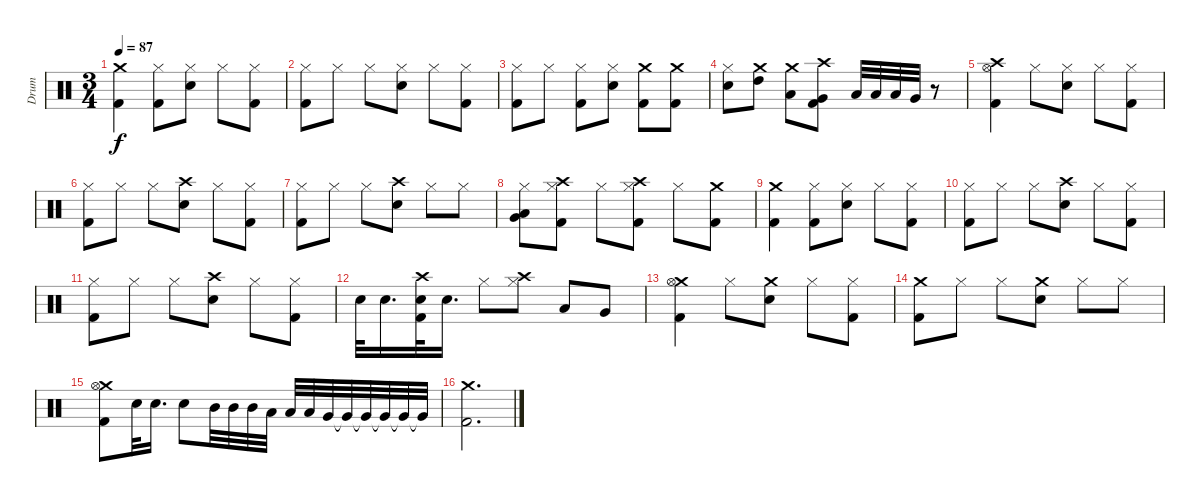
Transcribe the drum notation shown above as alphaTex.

\track ("Drum" "Drum") {instrument percussion}
\staff {score}
\articulation defaults
\ts (3 4)
\tempo 87
\clef neutral
\ks c
("Crash medium (hit)" "Kick (hit) 2").4{dy f} ("Hi-Hat (closed)" "Kick (hit) 2").8 ("Hi-Hat (closed)" "Electric Snare (hit)").8 "Hi-Hat (closed)".8 ("Hi-Hat (closed)" "Kick (hit) 2").8 |
("Hi-Hat (closed)" "Kick (hit) 2").8 "Hi-Hat (closed)".8 "Hi-Hat (closed)".8 ("Hi-Hat (closed)" "Electric Snare (hit)").8 "Hi-Hat (closed)".8 ("Hi-Hat (closed)" "Kick (hit) 2").8 |
("Hi-Hat (closed)" "Kick (hit) 2").8 "Hi-Hat (closed)".8 ("Hi-Hat (closed)" "Kick (hit) 2").8 ("Hi-Hat (closed)" "Electric Snare (hit)").8 ("Crash medium (hit)" "Kick (hit) 2").8 ("Crash medium (hit)" "Kick (hit) 2").8 |
("Hi-Hat (closed)" "Electric Snare (hit)").8 ("Crash medium (hit)" "High Tom (hit)").8 ("Crash medium (hit)" "Low Tom (hit)").8 ("Crash high (hit)" "Very Low Tom (hit)" "Kick (hit) 2").8 "Low Tom (hit)".32 "Low Tom (hit)".32 "Low Tom (hit)".32 "Very Low Tom (hit)".32 r.8 |
("Crash high (hit)" "Hi-Hat (open)" "Kick (hit) 2").4 "Hi-Hat (closed)".8 ("Hi-Hat (closed)" "Electric Snare (hit)").8 "Hi-Hat (closed)".8 ("Hi-Hat (closed)" "Kick (hit) 2").8 |
("Hi-Hat (closed)" "Kick (hit) 2").8 "Hi-Hat (closed)".8 "Hi-Hat (closed)".8 ("Crash high (hit)" "Electric Snare (hit)").8 "Hi-Hat (closed)".8 ("Hi-Hat (closed)" "Kick (hit) 2").8 |
("Hi-Hat (closed)" "Kick (hit) 2").8 "Hi-Hat (closed)".8 "Hi-Hat (closed)".8 ("Crash high (hit)" "Electric Snare (hit)").8 "Hi-Hat (closed)".8 "Hi-Hat (closed)".8 |
("Hi-Hat (closed)" "Very Low Tom (hit)" "Low Floor Tom (hit)").8 ("Crash high (hit)" "Hi-Hat (closed)" "Kick (hit) 2").8 "Hi-Hat (closed)".8 ("Crash high (hit)" "Hi-Hat (closed)" "Kick (hit) 2").8 "Hi-Hat (closed)".8 ("Crash medium (hit)" "Kick (hit) 2").8 |
("Crash medium (hit)" "Kick (hit) 2").4 ("Hi-Hat (closed)" "Kick (hit) 2").8 ("Hi-Hat (closed)" "Electric Snare (hit)").8 "Hi-Hat (closed)".8 ("Hi-Hat (closed)" "Kick (hit) 2").8 |
("Hi-Hat (closed)" "Kick (hit) 2").8 "Hi-Hat (closed)".8 "Hi-Hat (closed)".8 ("Crash high (hit)" "Electric Snare (hit)").8 "Hi-Hat (closed)".8 ("Hi-Hat (closed)" "Kick (hit) 2").8 |
("Hi-Hat (closed)" "Kick (hit) 2").8 "Hi-Hat (closed)".8 "Hi-Hat (closed)".8 ("Crash high (hit)" "Electric Snare (hit)").8 "Hi-Hat (closed)".8 ("Hi-Hat (closed)" "Kick (hit) 2").8 |
"Electric Snare (hit)".32 "Electric Snare (hit)".16{d} ("Crash high (hit)" "Electric Snare (hit)" "Kick (hit) 2").32 "Electric Snare (hit)".16{d} "Hi-Hat (closed)".8 ("Crash high (hit)" "Hi-Hat (closed)").8 "Low Tom (hit)".8 "Very Low Tom (hit)".8 |
("Crash medium (hit)" "Hi-Hat (open)" "Kick (hit) 2").4 "Hi-Hat (closed)".8 ("Crash medium (hit)" "Electric Snare (hit)").8 "Hi-Hat (closed)".8 ("Hi-Hat (closed)" "Kick (hit) 2").8 |
("Crash medium (hit)" "Kick (hit) 2").8 "Hi-Hat (closed)".8 "Hi-Hat (closed)".8 ("Crash medium (hit)" "Electric Snare (hit)").8 "Hi-Hat (closed)".8 "Hi-Hat (closed)".8 |
("Crash medium (hit)" "Hi-Hat (open)" "Kick (hit) 2").8 "Electric Snare (hit)".32 "Electric Snare (hit)".16{d} "Snare (hit) 2".8 "Mid Tom (hit)".32 "Mid Tom (hit)".32 "Mid Tom (hit)".32 "Low Tom (hit)".32 "Low Tom (hit)".32 "Low Tom (hit)".32 "Very Low Tom (hit)".32 "Very Low Tom (hit)"{t}.32 "Very Low Tom (hit)"{t}.32 "Very Low Tom (hit)"{t}.32 "Very Low Tom (hit)"{t}.32 "Very Low Tom (hit)"{t}.32 |
("Crash medium (hit)" "Kick (hit) 2").2{d}
